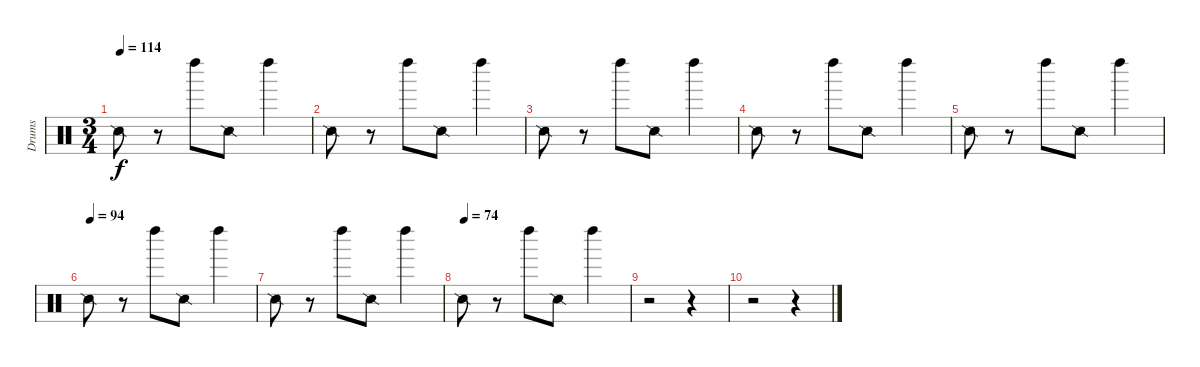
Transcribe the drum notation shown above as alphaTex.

\track ("Drums" "Drums") {instrument percussion}
\staff {score}
\articulation defaults
\ts (3 4)
\tempo 114
\clef neutral
\ks c "Snare (side stick) 2".8{dy f}
r.8 "Left Maraca (hit)".8 "Snare (side stick) 2".8 "Left Maraca (hit)".4 |
"Snare (side stick) 2".8 r.8 "Left Maraca (hit)".8 "Snare (side stick) 2".8 "Left Maraca (hit)".4 |
"Snare (side stick) 2".8 r.8 "Left Maraca (hit)".8 "Snare (side stick) 2".8 "Left Maraca (hit)".4 |
"Snare (side stick) 2".8 r.8 "Left Maraca (hit)".8 "Snare (side stick) 2".8 "Left Maraca (hit)".4 |
"Snare (side stick) 2".8 r.8 "Left Maraca (hit)".8 "Snare (side stick) 2".8 "Left Maraca (hit)".4 |
\tempo (94)
"Snare (side stick) 2".8 r.8 "Left Maraca (hit)".8 "Snare (side stick) 2".8 "Left Maraca (hit)".4 |
"Snare (side stick) 2".8 r.8 "Left Maraca (hit)".8 "Snare (side stick) 2".8 "Left Maraca (hit)".4 |
\tempo (74)
"Snare (side stick) 2".8 r.8 "Left Maraca (hit)".8 "Snare (side stick) 2".8 "Left Maraca (hit)".4 |
r.2 r.4 |
r.2 r.4
